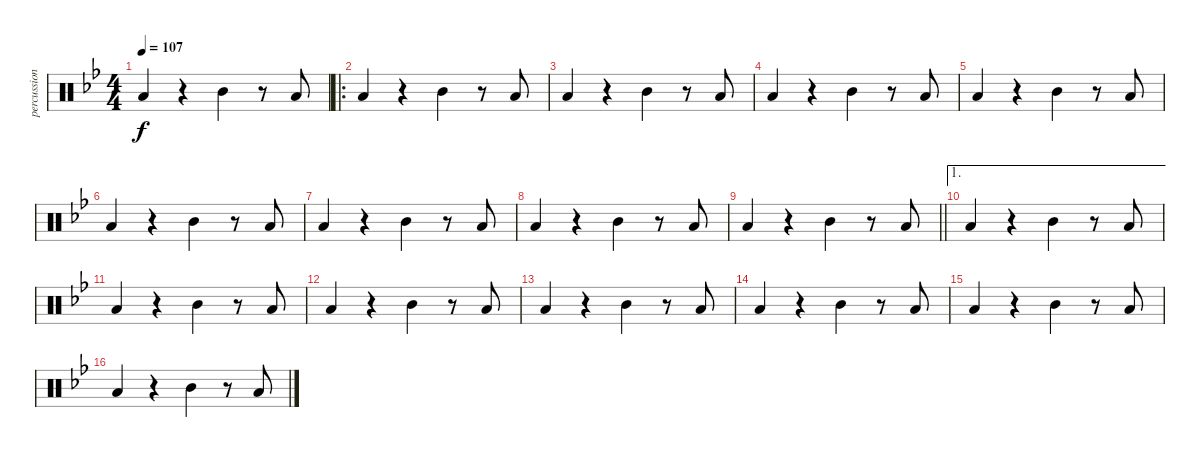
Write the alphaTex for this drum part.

\track ("percussions" "percussion") {instrument percussion}
\staff {score}
\articulation defaults
\ts (4 4)
\tempo 107
\clef neutral
\ks bb "Low Floor Tom (hit)".4{dy f}
r.4 "Mid Tom (hit)".4 r.8 "Low Floor Tom (hit)".8 |
\ro "Low Floor Tom (hit)".4
r.4 "Mid Tom (hit)".4 r.8 "Low Floor Tom (hit)".8 |
"Low Floor Tom (hit)".4 r.4 "Mid Tom (hit)".4 r.8 "Low Floor Tom (hit)".8 |
"Low Floor Tom (hit)".4 r.4 "Mid Tom (hit)".4 r.8 "Low Floor Tom (hit)".8 |
"Low Floor Tom (hit)".4 r.4 "Mid Tom (hit)".4 r.8 "Low Floor Tom (hit)".8 |
"Low Floor Tom (hit)".4 r.4 "Mid Tom (hit)".4 r.8 "Low Floor Tom (hit)".8 |
"Low Floor Tom (hit)".4 r.4 "Mid Tom (hit)".4 r.8 "Low Floor Tom (hit)".8 |
"Low Floor Tom (hit)".4 r.4 "Mid Tom (hit)".4 r.8 "Low Floor Tom (hit)".8 |
\barLineRight lightlight "Low Floor Tom (hit)".4
r.4 "Mid Tom (hit)".4 r.8 "Low Floor Tom (hit)".8 |
\ae 1 "Low Floor Tom (hit)".4
r.4 "Mid Tom (hit)".4 r.8 "Low Floor Tom (hit)".8 |
"Low Floor Tom (hit)".4 r.4 "Mid Tom (hit)".4 r.8 "Low Floor Tom (hit)".8 |
"Low Floor Tom (hit)".4 r.4 "Mid Tom (hit)".4 r.8 "Low Floor Tom (hit)".8 |
"Low Floor Tom (hit)".4 r.4 "Mid Tom (hit)".4 r.8 "Low Floor Tom (hit)".8 |
"Low Floor Tom (hit)".4 r.4 "Mid Tom (hit)".4 r.8 "Low Floor Tom (hit)".8 |
"Low Floor Tom (hit)".4 r.4 "Mid Tom (hit)".4 r.8 "Low Floor Tom (hit)".8 |
"Low Floor Tom (hit)".4 r.4 "Mid Tom (hit)".4 r.8 "Low Floor Tom (hit)".8
